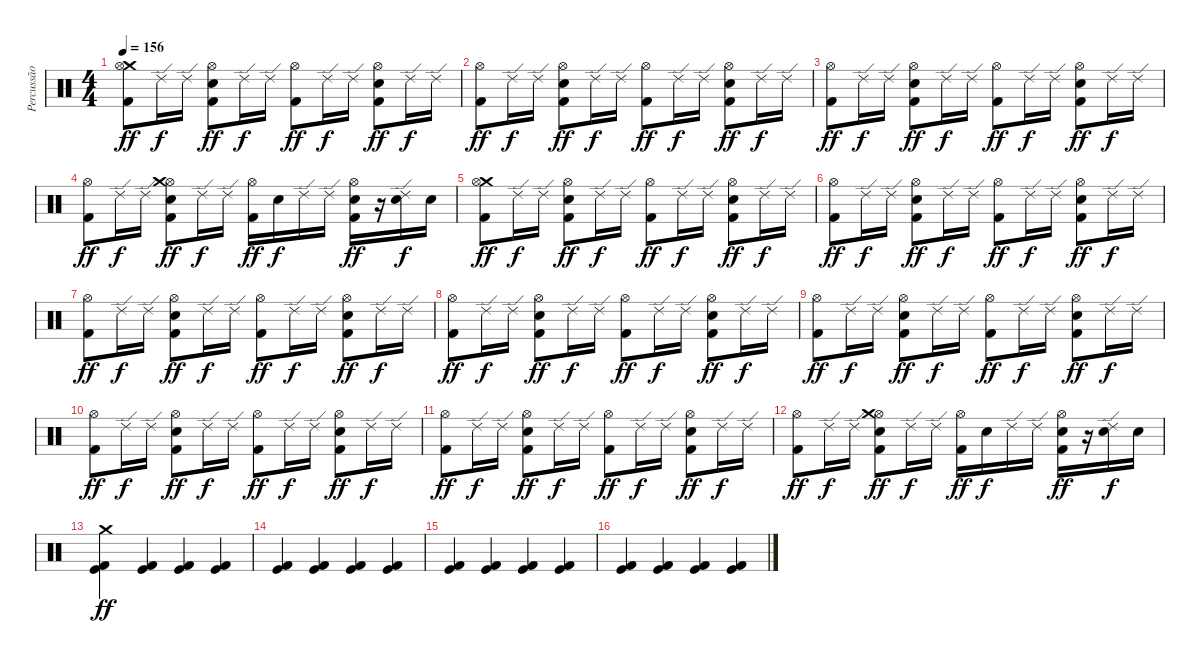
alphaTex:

\track ("Percussão" "Percussão") {instrument percussion}
\staff {score}
\articulation defaults
\ts (4 4)
\tempo 156
\clef neutral
\ks c
("Crash medium (hit)" "Hi-Hat (open)" "Kick (hit) 2").8{dy ff} "Ride (edge) 2".16{dy f} "Ride (edge) 2".16 ("Hi-Hat (open)" "Snare (hit) 2" "Kick (hit) 2").8{dy ff} "Ride (edge) 2".16{dy f} "Ride (edge) 2".16 ("Hi-Hat (open)" "Kick (hit) 2").8{dy ff} "Ride (edge) 2".16{dy f} "Ride (edge) 2".16 ("Hi-Hat (open)" "Snare (hit) 2" "Kick (hit) 2").8{dy ff} "Ride (edge) 2".16{dy f} "Ride (edge) 2".16 |
("Hi-Hat (open)" "Kick (hit) 2").8{dy ff} "Ride (edge) 2".16{dy f} "Ride (edge) 2".16 ("Hi-Hat (open)" "Snare (hit) 2" "Kick (hit) 2").8{dy ff} "Ride (edge) 2".16{dy f} "Ride (edge) 2".16 ("Hi-Hat (open)" "Kick (hit) 2").8{dy ff} "Ride (edge) 2".16{dy f} "Ride (edge) 2".16 ("Hi-Hat (open)" "Snare (hit) 2" "Kick (hit) 2").8{dy ff} "Ride (edge) 2".16{dy f} "Ride (edge) 2".16 |
("Hi-Hat (open)" "Kick (hit) 2").8{dy ff} "Ride (edge) 2".16{dy f} "Ride (edge) 2".16 ("Hi-Hat (open)" "Snare (hit) 2" "Kick (hit) 2").8{dy ff} "Ride (edge) 2".16{dy f} "Ride (edge) 2".16 ("Hi-Hat (open)" "Kick (hit) 2").8{dy ff} "Ride (edge) 2".16{dy f} "Ride (edge) 2".16 ("Hi-Hat (open)" "Snare (hit) 2" "Kick (hit) 2").8{dy ff} "Ride (edge) 2".16{dy f} "Ride (edge) 2".16 |
("Hi-Hat (open)" "Kick (hit) 2").8{dy ff} "Ride (edge) 2".16{dy f} "Ride (edge) 2".16 ("Hi-Hat (open)" "Crash medium (hit)" "Snare (hit) 2" "Kick (hit) 2").8{dy ff} "Ride (edge) 2".16{dy f} "Ride (edge) 2".16 ("Hi-Hat (open)" "Kick (hit) 2").16{dy ff} "Snare (hit) 2".16{dy f} "Ride (edge) 2".16 "Ride (edge) 2".16 ("Hi-Hat (open)" "Snare (hit) 2" "Kick (hit) 2").16{dy ff} r.16 ("Ride (edge) 2" "Snare (hit) 2").16{dy f} "Snare (hit) 2".16 |
("Crash medium (hit)" "Hi-Hat (open)" "Kick (hit) 2").8{dy ff} "Ride (edge) 2".16{dy f} "Ride (edge) 2".16 ("Hi-Hat (open)" "Snare (hit) 2" "Kick (hit) 2").8{dy ff} "Ride (edge) 2".16{dy f} "Ride (edge) 2".16 ("Hi-Hat (open)" "Kick (hit) 2").8{dy ff} "Ride (edge) 2".16{dy f} "Ride (edge) 2".16 ("Hi-Hat (open)" "Snare (hit) 2" "Kick (hit) 2").8{dy ff} "Ride (edge) 2".16{dy f} "Ride (edge) 2".16 |
("Hi-Hat (open)" "Kick (hit) 2").8{dy ff} "Ride (edge) 2".16{dy f} "Ride (edge) 2".16 ("Hi-Hat (open)" "Snare (hit) 2" "Kick (hit) 2").8{dy ff} "Ride (edge) 2".16{dy f} "Ride (edge) 2".16 ("Hi-Hat (open)" "Kick (hit) 2").8{dy ff} "Ride (edge) 2".16{dy f} "Ride (edge) 2".16 ("Hi-Hat (open)" "Snare (hit) 2" "Kick (hit) 2").8{dy ff} "Ride (edge) 2".16{dy f} "Ride (edge) 2".16 |
("Hi-Hat (open)" "Kick (hit) 2").8{dy ff} "Ride (edge) 2".16{dy f} "Ride (edge) 2".16 ("Hi-Hat (open)" "Snare (hit) 2" "Kick (hit) 2").8{dy ff} "Ride (edge) 2".16{dy f} "Ride (edge) 2".16 ("Hi-Hat (open)" "Kick (hit) 2").8{dy ff} "Ride (edge) 2".16{dy f} "Ride (edge) 2".16 ("Hi-Hat (open)" "Snare (hit) 2" "Kick (hit) 2").8{dy ff} "Ride (edge) 2".16{dy f} "Ride (edge) 2".16 |
("Hi-Hat (open)" "Kick (hit) 2").8{dy ff} "Ride (edge) 2".16{dy f} "Ride (edge) 2".16 ("Hi-Hat (open)" "Snare (hit) 2" "Kick (hit) 2").8{dy ff} "Ride (edge) 2".16{dy f} "Ride (edge) 2".16 ("Hi-Hat (open)" "Kick (hit) 2").8{dy ff} "Ride (edge) 2".16{dy f} "Ride (edge) 2".16 ("Hi-Hat (open)" "Snare (hit) 2" "Kick (hit) 2").8{dy ff} "Ride (edge) 2".16{dy f} "Ride (edge) 2".16 |
("Hi-Hat (open)" "Kick (hit) 2").8{dy ff} "Ride (edge) 2".16{dy f} "Ride (edge) 2".16 ("Hi-Hat (open)" "Snare (hit) 2" "Kick (hit) 2").8{dy ff} "Ride (edge) 2".16{dy f} "Ride (edge) 2".16 ("Hi-Hat (open)" "Kick (hit) 2").8{dy ff} "Ride (edge) 2".16{dy f} "Ride (edge) 2".16 ("Hi-Hat (open)" "Snare (hit) 2" "Kick (hit) 2").8{dy ff} "Ride (edge) 2".16{dy f} "Ride (edge) 2".16 |
("Hi-Hat (open)" "Kick (hit) 2").8{dy ff} "Ride (edge) 2".16{dy f} "Ride (edge) 2".16 ("Hi-Hat (open)" "Snare (hit) 2" "Kick (hit) 2").8{dy ff} "Ride (edge) 2".16{dy f} "Ride (edge) 2".16 ("Hi-Hat (open)" "Kick (hit) 2").8{dy ff} "Ride (edge) 2".16{dy f} "Ride (edge) 2".16 ("Hi-Hat (open)" "Snare (hit) 2" "Kick (hit) 2").8{dy ff} "Ride (edge) 2".16{dy f} "Ride (edge) 2".16 |
("Hi-Hat (open)" "Kick (hit) 2").8{dy ff} "Ride (edge) 2".16{dy f} "Ride (edge) 2".16 ("Hi-Hat (open)" "Snare (hit) 2" "Kick (hit) 2").8{dy ff} "Ride (edge) 2".16{dy f} "Ride (edge) 2".16 ("Hi-Hat (open)" "Kick (hit) 2").8{dy ff} "Ride (edge) 2".16{dy f} "Ride (edge) 2".16 ("Hi-Hat (open)" "Snare (hit) 2" "Kick (hit) 2").8{dy ff} "Ride (edge) 2".16{dy f} "Ride (edge) 2".16 |
("Hi-Hat (open)" "Kick (hit) 2").8{dy ff} "Ride (edge) 2".16{dy f} "Ride (edge) 2".16 ("Hi-Hat (open)" "Crash medium (hit)" "Snare (hit) 2" "Kick (hit) 2").8{dy ff} "Ride (edge) 2".16{dy f} "Ride (edge) 2".16 ("Hi-Hat (open)" "Kick (hit) 2").16{dy ff} "Snare (hit) 2".16{dy f} "Ride (edge) 2".16 "Ride (edge) 2".16 ("Hi-Hat (open)" "Snare (hit) 2" "Kick (hit) 2").16{dy ff} r.16 ("Ride (edge) 2" "Snare (hit) 2").16{dy f} "Snare (hit) 2".16 |
("Crash medium (hit)" "Kick (hit)" "Kick (hit) 2").4{dy ff} ("Kick (hit)" "Kick (hit) 2").4 ("Kick (hit)" "Kick (hit) 2").4 ("Kick (hit)" "Kick (hit) 2").4 |
("Kick (hit)" "Kick (hit) 2").4 ("Kick (hit)" "Kick (hit) 2").4 ("Kick (hit)" "Kick (hit) 2").4 ("Kick (hit)" "Kick (hit) 2").4 |
("Kick (hit)" "Kick (hit) 2").4 ("Kick (hit)" "Kick (hit) 2").4 ("Kick (hit)" "Kick (hit) 2").4 ("Kick (hit)" "Kick (hit) 2").4 |
("Kick (hit)" "Kick (hit) 2").4 ("Kick (hit)" "Kick (hit) 2").4 ("Kick (hit)" "Kick (hit) 2").4 ("Kick (hit)" "Kick (hit) 2").4
